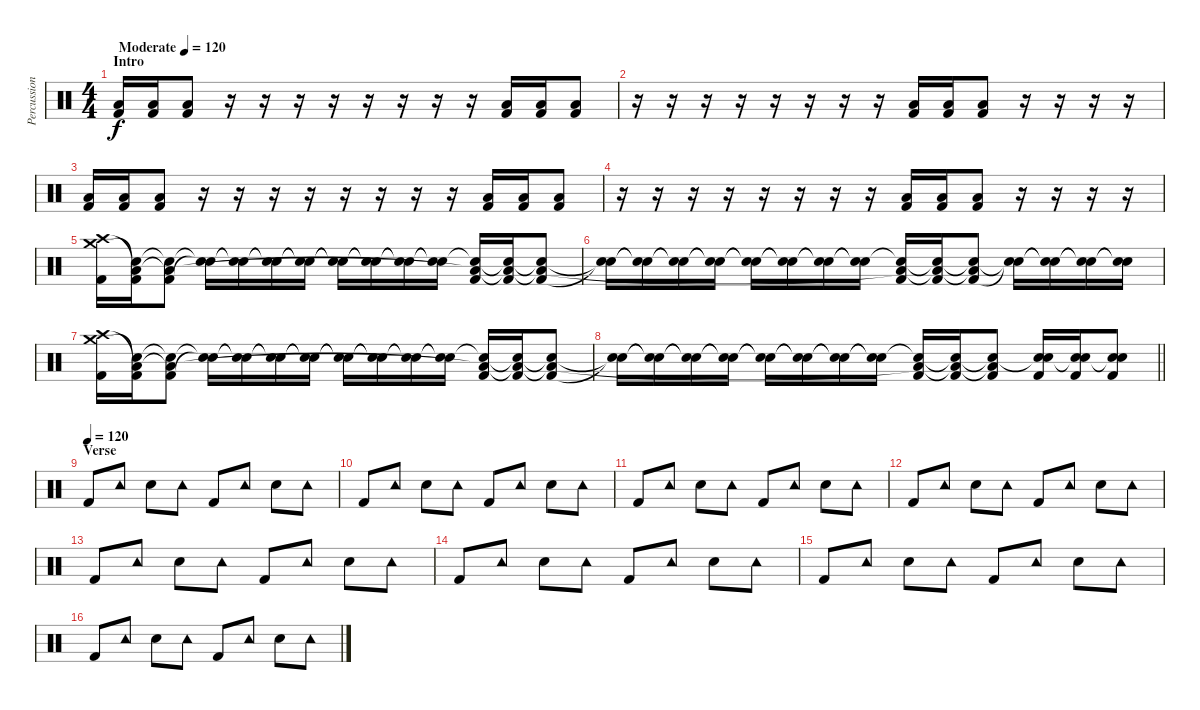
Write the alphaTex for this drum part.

\track ("Percussion" "Percussion") {instrument percussion}
\staff {score}
\articulation defaults
\ts (4 4)
\section ("" "Intro")
\tempo (120 "Moderate")
\tempo 150
\tempo (120 "Moderate")
\clef neutral
\ks c
("Kick (hit) 2" "Low Floor Tom (hit)").16{dy f} ("Kick (hit) 2" "Low Floor Tom (hit)").16 ("Kick (hit) 2" "Low Floor Tom (hit)").8 r.16 r.16 r.16 r.16 r.16 r.16 r.16 r.16 ("Kick (hit) 2" "Low Floor Tom (hit)").16 ("Kick (hit) 2" "Low Floor Tom (hit)").16 ("Kick (hit) 2" "Low Floor Tom (hit)").8 |
r.16 r.16 r.16 r.16 r.16 r.16 r.16 r.16 ("Kick (hit) 2" "Low Floor Tom (hit)").16 ("Kick (hit) 2" "Low Floor Tom (hit)").16 ("Kick (hit) 2" "Low Floor Tom (hit)").8 r.16 r.16 r.16 r.16 |
("Kick (hit) 2" "Low Floor Tom (hit)").16 ("Kick (hit) 2" "Low Floor Tom (hit)").16 ("Kick (hit) 2" "Low Floor Tom (hit)").8 r.16 r.16 r.16 r.16 r.16 r.16 r.16 r.16 ("Kick (hit) 2" "Low Floor Tom (hit)").16 ("Kick (hit) 2" "Low Floor Tom (hit)").16 ("Kick (hit) 2" "Low Floor Tom (hit)").8 |
r.16 r.16 r.16 r.16 r.16 r.16 r.16 r.16 ("Kick (hit) 2" "Low Floor Tom (hit)").16 ("Kick (hit) 2" "Low Floor Tom (hit)").16 ("Kick (hit) 2" "Low Floor Tom (hit)").8 r.16 r.16 r.16 r.16 |
("Crash medium (hit)" "Kick (hit) 2" "Crash high (hit)").16 ("Snare (hit)"{t} "Kick (hit) 2" "Low Floor Tom (hit)"{t}).16 ("Snare (hit)"{t} "Kick (hit) 2" "Low Floor Tom (hit)"{t}).8 ("Snare (hit)"{t} "Snare (hit)"{t}).16 ("Snare (hit)"{t} "Snare (hit)"{t}).16 ("Snare (hit)"{t} "Snare (hit)"{t}).16 ("Snare (hit)"{t} "Snare (hit)"{t}).16 ("Snare (hit)"{t} "Snare (hit)"{t}).16 ("Snare (hit)"{t} "Snare (hit)"{t}).16 ("Snare (hit)"{t} "Snare (hit)"{t}).16 ("Snare (hit)"{t} "Snare (hit)"{t}).16 ("Snare (hit)"{t} "Kick (hit) 2" "Low Floor Tom (hit)"{t}).16 ("Snare (hit)"{t} "Kick (hit) 2" "Low Floor Tom (hit)"{t}).16 ("Snare (hit)"{t} "Kick (hit) 2" "Low Floor Tom (hit)"{t}).8 |
("Snare (hit)"{t} "Snare (hit)"{t}).16 ("Snare (hit)"{t} "Snare (hit)"{t}).16 ("Snare (hit)"{t} "Snare (hit)"{t}).16 ("Snare (hit)"{t} "Snare (hit)"{t}).16 ("Snare (hit)"{t} "Snare (hit)"{t}).16 ("Snare (hit)"{t} "Snare (hit)"{t}).16 ("Snare (hit)"{t} "Snare (hit)"{t}).16 ("Snare (hit)"{t} "Snare (hit)"{t}).16 ("Snare (hit)"{t} "Kick (hit) 2" "Low Floor Tom (hit)"{t}).16 ("Snare (hit)"{t} "Kick (hit) 2" "Low Floor Tom (hit)"{t}).16 ("Snare (hit)"{t} "Kick (hit) 2" "Low Floor Tom (hit)"{t}).8 ("Snare (hit)"{t} "Snare (hit)"{t}).16 ("Snare (hit)"{t} "Snare (hit)"{t}).16 ("Snare (hit)"{t} "Snare (hit)"{t}).16 ("Snare (hit)"{t} "Snare (hit)"{t}).16 |
("Crash medium (hit)" "Kick (hit) 2" "Crash high (hit)").16 ("Snare (hit)"{t} "Kick (hit) 2" "Low Floor Tom (hit)"{t}).16 ("Snare (hit)"{t} "Kick (hit) 2" "Low Floor Tom (hit)"{t}).8 ("Snare (hit)"{t} "Snare (hit)"{t}).16 ("Snare (hit)"{t} "Snare (hit)"{t}).16 ("Snare (hit)"{t} "Snare (hit)"{t}).16 ("Snare (hit)"{t} "Snare (hit)"{t}).16 ("Snare (hit)"{t} "Snare (hit)"{t}).16 ("Snare (hit)"{t} "Snare (hit)"{t}).16 ("Snare (hit)"{t} "Snare (hit)"{t}).16 ("Snare (hit)"{t} "Snare (hit)"{t}).16 ("Snare (hit)"{t} "Kick (hit) 2" "Low Floor Tom (hit)"{t}).16 ("Snare (hit)"{t} "Kick (hit) 2" "Low Floor Tom (hit)"{t}).16 ("Snare (hit)"{t} "Kick (hit) 2" "Low Floor Tom (hit)"{t}).8 |
\barLineRight lightlight
("Snare (hit)"{t} "Snare (hit)"{t}).16 ("Snare (hit)"{t} "Snare (hit)"{t}).16 ("Snare (hit)"{t} "Snare (hit)"{t}).16 ("Snare (hit)"{t} "Snare (hit)"{t}).16 ("Snare (hit)"{t} "Snare (hit)"{t}).16 ("Snare (hit)"{t} "Snare (hit)"{t}).16 ("Snare (hit)"{t} "Snare (hit)"{t}).16 ("Snare (hit)"{t} "Snare (hit)"{t}).16 ("Snare (hit)"{t} "Kick (hit) 2" "Low Floor Tom (hit)"{t}).16 ("Snare (hit)"{t} "Kick (hit) 2" "Low Floor Tom (hit)"{t}).16 ("Snare (hit)"{t} "Kick (hit) 2" "Low Floor Tom (hit)"{t}).8 ("Snare (hit)"{t} "Snare (hit) 2" "Kick (hit) 2").16 ("Snare (hit)"{t} "Snare (hit) 2" "Kick (hit) 2").16 ("Snare (hit)"{t} "Snare (hit) 2" "Kick (hit) 2").8 |
\section ("" "Verse")
\tempo (120)
"Kick (hit) 2".8 "Tambourine (hit)".8 "Hand Clap (hit)".8 "Tambourine (hit)".8 "Kick (hit) 2".8 "Tambourine (hit)".8 "Hand Clap (hit)".8 "Tambourine (hit)".8 |
"Kick (hit) 2".8 "Tambourine (hit)".8 "Hand Clap (hit)".8 "Tambourine (hit)".8 "Kick (hit) 2".8 "Tambourine (hit)".8 "Hand Clap (hit)".8 "Tambourine (hit)".8 |
"Kick (hit) 2".8 "Tambourine (hit)".8 "Hand Clap (hit)".8 "Tambourine (hit)".8 "Kick (hit) 2".8 "Tambourine (hit)".8 "Hand Clap (hit)".8 "Tambourine (hit)".8 |
"Kick (hit) 2".8 "Tambourine (hit)".8 "Hand Clap (hit)".8 "Tambourine (hit)".8 "Kick (hit) 2".8 "Tambourine (hit)".8 "Hand Clap (hit)".8 "Tambourine (hit)".8 |
"Kick (hit) 2".8 "Tambourine (hit)".8 "Hand Clap (hit)".8 "Tambourine (hit)".8 "Kick (hit) 2".8 "Tambourine (hit)".8 "Hand Clap (hit)".8 "Tambourine (hit)".8 |
"Kick (hit) 2".8 "Tambourine (hit)".8 "Hand Clap (hit)".8 "Tambourine (hit)".8 "Kick (hit) 2".8 "Tambourine (hit)".8 "Hand Clap (hit)".8 "Tambourine (hit)".8 |
"Kick (hit) 2".8 "Tambourine (hit)".8 "Hand Clap (hit)".8 "Tambourine (hit)".8 "Kick (hit) 2".8 "Tambourine (hit)".8 "Hand Clap (hit)".8 "Tambourine (hit)".8 |
"Kick (hit) 2".8 "Tambourine (hit)".8 "Hand Clap (hit)".8 "Tambourine (hit)".8 "Kick (hit) 2".8 "Tambourine (hit)".8 "Hand Clap (hit)".8 "Tambourine (hit)".8
